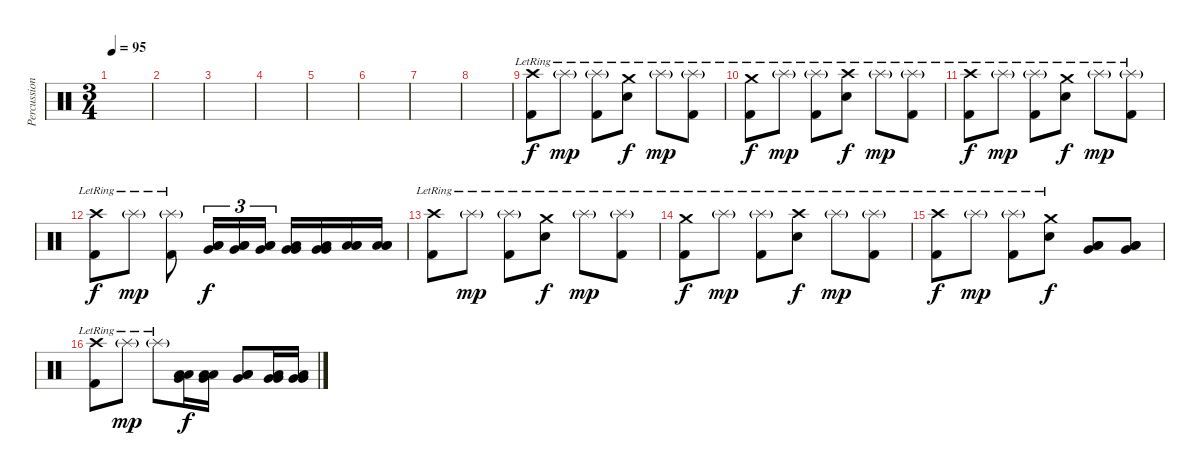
\track ("Percussion I" "Percussion") {instrument percussion}
\staff {score}
\articulation defaults
\ts (3 4)
\tempo 95
\clef neutral
\ks c
|
|
|
|
|
|
|
|
("Crash high (hit)"{lr} "Kick (hit) 2").8 "Splash (hit)"{g lr}.8{dy mp} ("Splash (hit)"{g lr} "Kick (hit) 2").8 ("Crash medium (hit)"{lr} "Electric Snare (hit)").8{dy f} "Splash (hit)"{g lr}.8{dy mp} ("Splash (hit)"{g lr} "Kick (hit) 2").8 |
("Crash medium (hit)"{lr} "Kick (hit) 2").8{dy f} "Splash (hit)"{g lr}.8{dy mp} ("Splash (hit)"{g lr} "Kick (hit) 2").8 ("Crash high (hit)"{lr} "Electric Snare (hit)").8{dy f} "Splash (hit)"{g lr}.8{dy mp} ("Splash (hit)"{g lr} "Kick (hit) 2").8 |
("Crash high (hit)"{lr} "Kick (hit) 2").8{dy f} "Splash (hit)"{g lr}.8{dy mp} ("Splash (hit)"{g lr} "Kick (hit) 2").8 ("Crash medium (hit)"{lr} "Electric Snare (hit)").8{dy f} "Splash (hit)"{g lr}.8{dy mp} ("Splash (hit)"{g lr} "Kick (hit) 2").8 |
("Crash high (hit)"{lr} "Kick (hit) 2").8{dy f} "Splash (hit)"{g lr}.8{dy mp} ("Splash (hit)"{g lr} "Kick (hit) 2").8 ("Low Tom (hit)" "Low Tom (hit)" "Very Low Tom (hit)").16{tu (3 2) dy f} ("Low Tom (hit)" "Low Tom (hit)" "Very Low Tom (hit)").16{tu (3 2)} ("Low Tom (hit)" "Low Tom (hit)" "Very Low Tom (hit)").16{tu (3 2)} ("Very Low Tom (hit)" "Very Low Tom (hit)" "Low Floor Tom (hit)").16 ("Very Low Tom (hit)" "Very Low Tom (hit)" "Low Floor Tom (hit)").16 ("Low Floor Tom (hit)" "Low Floor Tom (hit)" "Low Floor Tom (hit)").16 ("Low Floor Tom (hit)" "Low Floor Tom (hit)" "Low Floor Tom (hit)").16 |
("Crash high (hit)"{lr} "Kick (hit) 2").8 "Splash (hit)"{g lr}.8{dy mp} ("Splash (hit)"{g lr} "Kick (hit) 2").8 ("Crash medium (hit)"{lr} "Electric Snare (hit)").8{dy f} "Splash (hit)"{g lr}.8{dy mp} ("Splash (hit)"{g lr} "Kick (hit) 2").8 |
("Crash medium (hit)"{lr} "Kick (hit) 2").8{dy f} "Splash (hit)"{g lr}.8{dy mp} ("Splash (hit)"{g lr} "Kick (hit) 2").8 ("Crash high (hit)"{lr} "Electric Snare (hit)").8{dy f} "Splash (hit)"{g lr}.8{dy mp} ("Splash (hit)"{g lr} "Kick (hit) 2").8 |
("Crash high (hit)"{lr} "Kick (hit) 2").8{dy f} "Splash (hit)"{g lr}.8{dy mp} ("Splash (hit)"{g lr} "Kick (hit) 2").8 ("Crash medium (hit)"{lr} "Electric Snare (hit)").8{dy f} ("Low Tom (hit)" "Low Tom (hit)" "Very Low Tom (hit)").8 ("Low Tom (hit)" "Low Tom (hit)" "Very Low Tom (hit)").8 |
("Crash high (hit)"{lr} "Kick (hit) 2").8 "Splash (hit)"{g lr}.8{dy mp} "Splash (hit)"{g lr}.8 ("Low Tom (hit)" "Low Tom (hit)" "Very Low Tom (hit)").16{dy f} ("Low Tom (hit)" "Low Tom (hit)" "Very Low Tom (hit)").16 ("Low Tom (hit)" "Low Tom (hit)" "Very Low Tom (hit)").8 ("Very Low Tom (hit)" "Very Low Tom (hit)" "Low Floor Tom (hit)").16 ("Very Low Tom (hit)" "Very Low Tom (hit)" "Low Floor Tom (hit)").16
